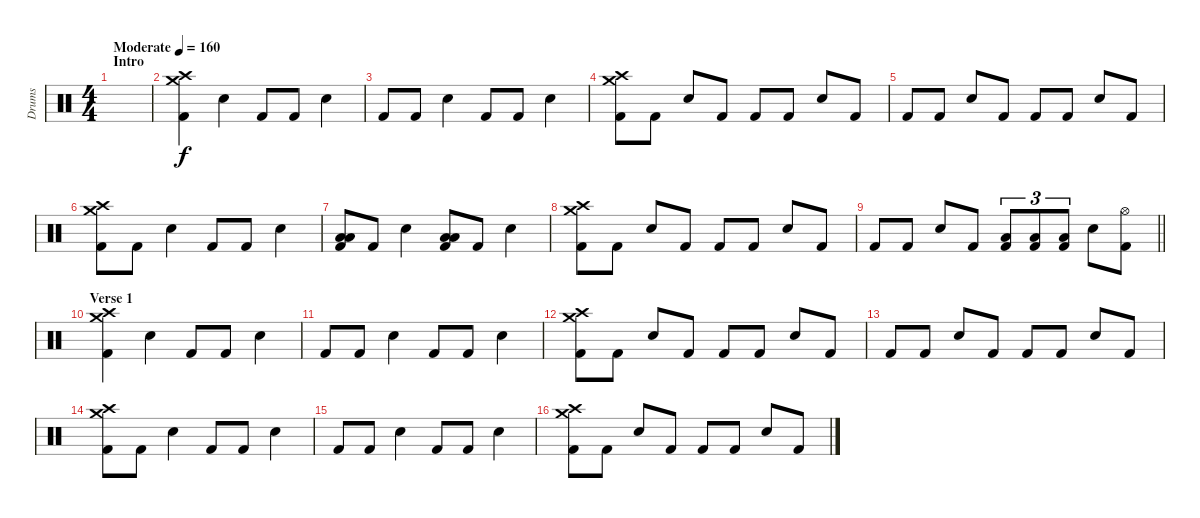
\track ("Drums" "Drums") {instrument percussion}
\staff {score}
\articulation defaults
\ts (4 4)
\section ("" "Intro")
\tempo (160 "Moderate")
\clef neutral
\ks c
|
("Crash medium (hit)" "Crash high (hit)" "Kick (hit) 2").4 "Snare (hit) 2".4 "Kick (hit) 2".8 "Kick (hit) 2".8 "Snare (hit) 2".4 |
"Kick (hit) 2".8 "Kick (hit) 2".8 "Snare (hit) 2".4 "Kick (hit) 2".8 "Kick (hit) 2".8 "Snare (hit) 2".4 |
("Crash medium (hit)" "Crash high (hit)" "Kick (hit) 2").8 "Kick (hit) 2".8 "Snare (hit) 2".8 "Kick (hit) 2".8 "Kick (hit) 2".8 "Kick (hit) 2".8 "Snare (hit) 2".8 "Kick (hit) 2".8 |
"Kick (hit) 2".8 "Kick (hit) 2".8 "Snare (hit) 2".8 "Kick (hit) 2".8 "Kick (hit) 2".8 "Kick (hit) 2".8 "Snare (hit) 2".8 "Kick (hit) 2".8 |
("Crash medium (hit)" "Crash high (hit)" "Kick (hit) 2").8 "Kick (hit) 2".8 "Snare (hit) 2".4 "Kick (hit) 2".8 "Kick (hit) 2".8 "Snare (hit) 2".4 |
("Low Floor Tom (hit)" "Low Tom (hit)" "Kick (hit) 2").8 "Kick (hit) 2".8 "Snare (hit) 2".4 ("Low Floor Tom (hit)" "Low Tom (hit)" "Kick (hit) 2").8 "Kick (hit) 2".8 "Snare (hit) 2".4 |
("Crash medium (hit)" "Crash high (hit)" "Kick (hit) 2").8 "Kick (hit) 2".8 "Snare (hit) 2".8 "Kick (hit) 2".8 "Kick (hit) 2".8 "Kick (hit) 2".8 "Snare (hit) 2".8 "Kick (hit) 2".8 |
\barLineRight lightlight "Kick (hit) 2".8 "Kick (hit) 2".8 "Snare (hit) 2".8 "Kick (hit) 2".8
("Low Floor Tom (hit)" "Kick (hit) 2").8{tu (3 2)} ("Low Floor Tom (hit)" "Kick (hit) 2").8{tu (3 2)} ("Low Floor Tom (hit)" "Kick (hit) 2").8{tu (3 2)} "Snare (hit) 2".8 ("Hi-Hat (open)" "Kick (hit) 2").8 |
\section ("" "Verse 1")
("Crash medium (hit)" "Crash high (hit)" "Kick (hit) 2").4 "Snare (hit) 2".4 "Kick (hit) 2".8 "Kick (hit) 2".8 "Snare (hit) 2".4 |
"Kick (hit) 2".8 "Kick (hit) 2".8 "Snare (hit) 2".4 "Kick (hit) 2".8 "Kick (hit) 2".8 "Snare (hit) 2".4 |
("Crash medium (hit)" "Crash high (hit)" "Kick (hit) 2").8 "Kick (hit) 2".8 "Snare (hit) 2".8 "Kick (hit) 2".8 "Kick (hit) 2".8 "Kick (hit) 2".8 "Snare (hit) 2".8 "Kick (hit) 2".8 |
"Kick (hit) 2".8 "Kick (hit) 2".8 "Snare (hit) 2".8 "Kick (hit) 2".8 "Kick (hit) 2".8 "Kick (hit) 2".8 "Snare (hit) 2".8 "Kick (hit) 2".8 |
("Crash medium (hit)" "Crash high (hit)" "Kick (hit) 2").8 "Kick (hit) 2".8 "Snare (hit) 2".4 "Kick (hit) 2".8 "Kick (hit) 2".8 "Snare (hit) 2".4 |
"Kick (hit) 2".8 "Kick (hit) 2".8 "Snare (hit) 2".4 "Kick (hit) 2".8 "Kick (hit) 2".8 "Snare (hit) 2".4 |
("Crash medium (hit)" "Crash high (hit)" "Kick (hit) 2").8 "Kick (hit) 2".8 "Snare (hit) 2".8 "Kick (hit) 2".8 "Kick (hit) 2".8 "Kick (hit) 2".8 "Snare (hit) 2".8 "Kick (hit) 2".8
